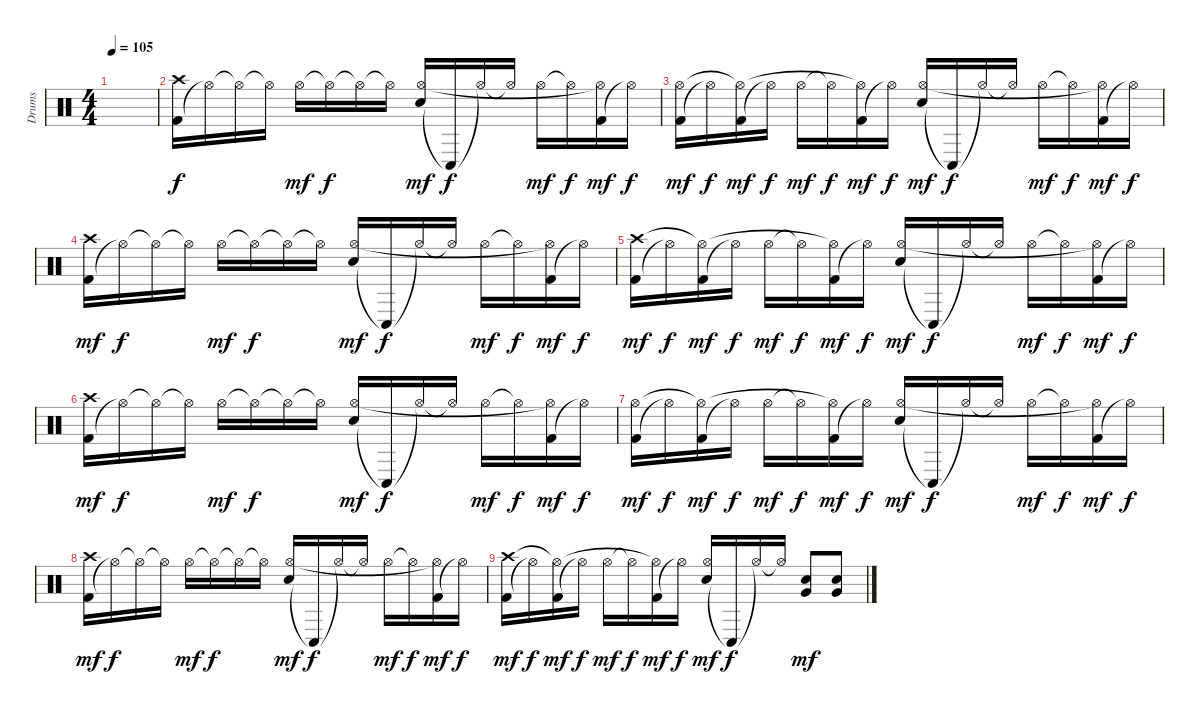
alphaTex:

\track ("Drums" "Drums") {instrument percussion}
\staff {score}
\articulation defaults
\ts (4 4)
\tempo 105
\clef neutral
\ks c
|
("Kick (hit) 2" "Crash high (hit)").16 "Hi-Hat (open)"{t}.16{dy f} "Hi-Hat (open)"{t}.16 "Hi-Hat (open)"{t}.16 "Hi-Hat (open)".16{dy mf} "Hi-Hat (open)"{t}.16{dy f} "Hi-Hat (open)"{t}.16 "Hi-Hat (open)"{t}.16 ("Snare (hit) 2" "Hi-Hat (open)").16{dy mf} "Conga low (hit)"{t}.16{dy f} "Hi-Hat (open)"{t}.16 "Hi-Hat (open)"{t}.16 "Hi-Hat (open)".16{dy mf} "Hi-Hat (open)"{t}.16{dy f} ("Kick (hit) 2" "Hi-Hat (open)"{t}).16{dy mf} "Hi-Hat (open)"{t}.16{dy f} |
("Kick (hit) 2" "Hi-Hat (open)").16{dy mf} "Hi-Hat (open)"{t}.16{dy f} ("Kick (hit) 2" "Hi-Hat (open)"{t}).16{dy mf} "Hi-Hat (open)"{t}.16{dy f} "Hi-Hat (open)".16{dy mf} "Hi-Hat (open)"{t}.16{dy f} ("Kick (hit) 2" "Hi-Hat (open)"{t}).16{dy mf} "Hi-Hat (open)"{t}.16{dy f} ("Snare (hit) 2" "Hi-Hat (open)").16{dy mf} "Conga low (hit)"{t}.16{dy f} "Hi-Hat (open)"{t}.16 "Hi-Hat (open)"{t}.16 "Hi-Hat (open)".16{dy mf} "Hi-Hat (open)"{t}.16{dy f} ("Kick (hit) 2" "Hi-Hat (open)"{t}).16{dy mf} "Hi-Hat (open)"{t}.16{dy f} |
("Kick (hit) 2" "Crash high (hit)").16{dy mf} "Hi-Hat (open)"{t}.16{dy f} "Hi-Hat (open)"{t}.16 "Hi-Hat (open)"{t}.16 "Hi-Hat (open)".16{dy mf} "Hi-Hat (open)"{t}.16{dy f} "Hi-Hat (open)"{t}.16 "Hi-Hat (open)"{t}.16 ("Snare (hit) 2" "Hi-Hat (open)").16{dy mf} "Conga low (hit)"{t}.16{dy f} "Hi-Hat (open)"{t}.16 "Hi-Hat (open)"{t}.16 "Hi-Hat (open)".16{dy mf} "Hi-Hat (open)"{t}.16{dy f} ("Kick (hit) 2" "Hi-Hat (open)"{t}).16{dy mf} "Hi-Hat (open)"{t}.16{dy f} |
("Kick (hit) 2" "Crash high (hit)").16{dy mf} "Hi-Hat (open)"{t}.16{dy f} ("Kick (hit) 2" "Hi-Hat (open)"{t}).16{dy mf} "Hi-Hat (open)"{t}.16{dy f} "Hi-Hat (open)".16{dy mf} "Hi-Hat (open)"{t}.16{dy f} ("Kick (hit) 2" "Hi-Hat (open)"{t}).16{dy mf} "Hi-Hat (open)"{t}.16{dy f} ("Snare (hit) 2" "Hi-Hat (open)").16{dy mf} "Conga low (hit)"{t}.16{dy f} "Hi-Hat (open)"{t}.16 "Hi-Hat (open)"{t}.16 "Hi-Hat (open)".16{dy mf} "Hi-Hat (open)"{t}.16{dy f} ("Kick (hit) 2" "Hi-Hat (open)"{t}).16{dy mf} "Hi-Hat (open)"{t}.16{dy f} |
("Kick (hit) 2" "Crash high (hit)").16{dy mf} "Hi-Hat (open)"{t}.16{dy f} "Hi-Hat (open)"{t}.16 "Hi-Hat (open)"{t}.16 "Hi-Hat (open)".16{dy mf} "Hi-Hat (open)"{t}.16{dy f} "Hi-Hat (open)"{t}.16 "Hi-Hat (open)"{t}.16 ("Snare (hit) 2" "Hi-Hat (open)").16{dy mf} "Conga low (hit)"{t}.16{dy f} "Hi-Hat (open)"{t}.16 "Hi-Hat (open)"{t}.16 "Hi-Hat (open)".16{dy mf} "Hi-Hat (open)"{t}.16{dy f} ("Kick (hit) 2" "Hi-Hat (open)"{t}).16{dy mf} "Hi-Hat (open)"{t}.16{dy f} |
("Kick (hit) 2" "Hi-Hat (open)").16{dy mf} "Hi-Hat (open)"{t}.16{dy f} ("Kick (hit) 2" "Hi-Hat (open)"{t}).16{dy mf} "Hi-Hat (open)"{t}.16{dy f} "Hi-Hat (open)".16{dy mf} "Hi-Hat (open)"{t}.16{dy f} ("Kick (hit) 2" "Hi-Hat (open)"{t}).16{dy mf} "Hi-Hat (open)"{t}.16{dy f} ("Snare (hit) 2" "Hi-Hat (open)").16{dy mf} "Conga low (hit)"{t}.16{dy f} "Hi-Hat (open)"{t}.16 "Hi-Hat (open)"{t}.16 "Hi-Hat (open)".16{dy mf} "Hi-Hat (open)"{t}.16{dy f} ("Kick (hit) 2" "Hi-Hat (open)"{t}).16{dy mf} "Hi-Hat (open)"{t}.16{dy f} |
("Kick (hit) 2" "Crash high (hit)").16{dy mf} "Hi-Hat (open)"{t}.16{dy f} "Hi-Hat (open)"{t}.16 "Hi-Hat (open)"{t}.16 "Hi-Hat (open)".16{dy mf} "Hi-Hat (open)"{t}.16{dy f} "Hi-Hat (open)"{t}.16 "Hi-Hat (open)"{t}.16 ("Snare (hit) 2" "Hi-Hat (open)").16{dy mf} "Conga low (hit)"{t}.16{dy f} "Hi-Hat (open)"{t}.16 "Hi-Hat (open)"{t}.16 "Hi-Hat (open)".16{dy mf} "Hi-Hat (open)"{t}.16{dy f} ("Kick (hit) 2" "Hi-Hat (open)"{t}).16{dy mf} "Hi-Hat (open)"{t}.16{dy f} |
("Kick (hit) 2" "Crash high (hit)").16{dy mf} "Hi-Hat (open)"{t}.16{dy f} ("Kick (hit) 2" "Hi-Hat (open)"{t}).16{dy mf} "Hi-Hat (open)"{t}.16{dy f} "Hi-Hat (open)".16{dy mf} "Hi-Hat (open)"{t}.16{dy f} ("Kick (hit) 2" "Hi-Hat (open)"{t}).16{dy mf} "Hi-Hat (open)"{t}.16{dy f} ("Snare (hit) 2" "Hi-Hat (open)").16{dy mf} "Conga low (hit)"{t}.16{dy f} "Hi-Hat (open)"{t}.16 "Hi-Hat (open)"{t}.16 ("Very Low Tom (hit)" "Snare (hit) 2").8{dy mf} ("Very Low Tom (hit)" "Snare (hit) 2").8
